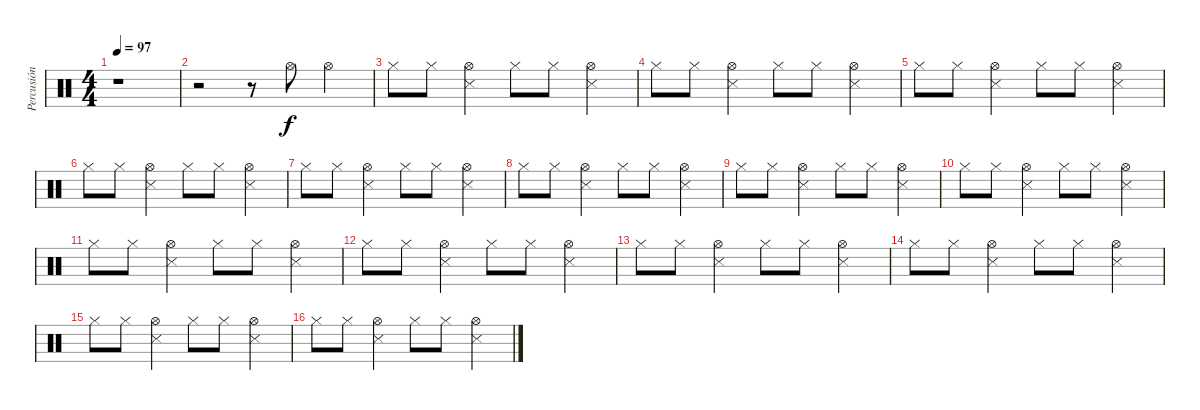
\track ("Percusión" "Percusión") {instrument percussion}
\staff {score}
\articulation defaults
\ts (4 4)
\tempo 97
\clef neutral
\ks c
r.1{dy f} |
r.2 r.8 "Hi-Hat (open)".8 "Hi-Hat (open)".4 |
"Hi-Hat (closed)".8 "Hi-Hat (closed)".8 ("Hi-Hat (open)" "Snare (side stick) 3").4 "Hi-Hat (closed)".8 "Hi-Hat (closed)".8 ("Hi-Hat (open)" "Snare (side stick) 3").4 |
"Hi-Hat (closed)".8 "Hi-Hat (closed)".8 ("Hi-Hat (open)" "Snare (side stick) 3").4 "Hi-Hat (closed)".8 "Hi-Hat (closed)".8 ("Hi-Hat (open)" "Snare (side stick) 3").4 |
"Hi-Hat (closed)".8 "Hi-Hat (closed)".8 ("Hi-Hat (open)" "Snare (side stick) 3").4 "Hi-Hat (closed)".8 "Hi-Hat (closed)".8 ("Hi-Hat (open)" "Snare (side stick) 3").4 |
"Hi-Hat (closed)".8 "Hi-Hat (closed)".8 ("Hi-Hat (open)" "Snare (side stick) 3").4 "Hi-Hat (closed)".8 "Hi-Hat (closed)".8 ("Hi-Hat (open)" "Snare (side stick) 3").4 |
"Hi-Hat (closed)".8 "Hi-Hat (closed)".8 ("Hi-Hat (open)" "Snare (side stick) 3").4 "Hi-Hat (closed)".8 "Hi-Hat (closed)".8 ("Hi-Hat (open)" "Snare (side stick) 3").4 |
"Hi-Hat (closed)".8 "Hi-Hat (closed)".8 ("Hi-Hat (open)" "Snare (side stick) 3").4 "Hi-Hat (closed)".8 "Hi-Hat (closed)".8 ("Hi-Hat (open)" "Snare (side stick) 3").4 |
"Hi-Hat (closed)".8 "Hi-Hat (closed)".8 ("Hi-Hat (open)" "Snare (side stick) 3").4 "Hi-Hat (closed)".8 "Hi-Hat (closed)".8 ("Hi-Hat (open)" "Snare (side stick) 3").4 |
"Hi-Hat (closed)".8 "Hi-Hat (closed)".8 ("Hi-Hat (open)" "Snare (side stick) 3").4 "Hi-Hat (closed)".8 "Hi-Hat (closed)".8 ("Hi-Hat (open)" "Snare (side stick) 3").4 |
"Hi-Hat (closed)".8 "Hi-Hat (closed)".8 ("Hi-Hat (open)" "Snare (side stick) 3").4 "Hi-Hat (closed)".8 "Hi-Hat (closed)".8 ("Hi-Hat (open)" "Snare (side stick) 3").4 |
"Hi-Hat (closed)".8 "Hi-Hat (closed)".8 ("Hi-Hat (open)" "Snare (side stick) 3").4 "Hi-Hat (closed)".8 "Hi-Hat (closed)".8 ("Hi-Hat (open)" "Snare (side stick) 3").4 |
"Hi-Hat (closed)".8 "Hi-Hat (closed)".8 ("Hi-Hat (open)" "Snare (side stick) 3").4 "Hi-Hat (closed)".8 "Hi-Hat (closed)".8 ("Hi-Hat (open)" "Snare (side stick) 3").4 |
"Hi-Hat (closed)".8 "Hi-Hat (closed)".8 ("Hi-Hat (open)" "Snare (side stick) 3").4 "Hi-Hat (closed)".8 "Hi-Hat (closed)".8 ("Hi-Hat (open)" "Snare (side stick) 3").4 |
"Hi-Hat (closed)".8 "Hi-Hat (closed)".8 ("Hi-Hat (open)" "Snare (side stick) 3").4 "Hi-Hat (closed)".8 "Hi-Hat (closed)".8 ("Hi-Hat (open)" "Snare (side stick) 3").4 |
"Hi-Hat (closed)".8 "Hi-Hat (closed)".8 ("Hi-Hat (open)" "Snare (side stick) 3").4 "Hi-Hat (closed)".8 "Hi-Hat (closed)".8 ("Hi-Hat (open)" "Snare (side stick) 3").4
